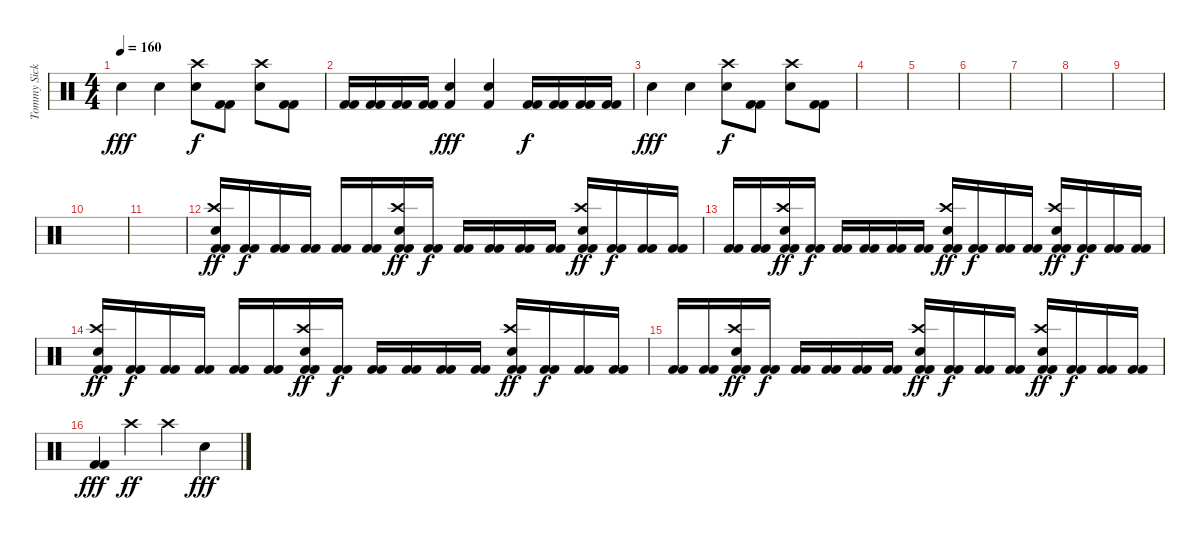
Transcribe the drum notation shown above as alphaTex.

\track ("Tommy Sickles" "Tommy Sick") {instrument percussion}
\staff {score}
\articulation defaults
\ts (4 4)
\tempo 160
\clef neutral
\ks c "Electric Snare (hit)".4{dy fff} "Electric Snare (hit)".4
("Crash high (hit)" "Electric Snare (hit)").8{dy f} ("Kick (hit) 2" "Kick (hit) 2").8 ("Crash high (hit)" "Electric Snare (hit)").8 ("Kick (hit) 2" "Kick (hit) 2").8 |
("Kick (hit) 2" "Kick (hit) 2").16 ("Kick (hit) 2" "Kick (hit) 2").16 ("Kick (hit) 2" "Kick (hit) 2").16 ("Kick (hit) 2" "Kick (hit) 2").16 ("Kick (hit) 2" "Electric Snare (hit)").4{dy fff} ("Kick (hit) 2" "Electric Snare (hit)").4 ("Kick (hit) 2" "Kick (hit) 2").16{dy f} ("Kick (hit) 2" "Kick (hit) 2").16 ("Kick (hit) 2" "Kick (hit) 2").16 ("Kick (hit) 2" "Kick (hit) 2").16 |
"Electric Snare (hit)".4{dy fff} "Electric Snare (hit)".4 ("Crash high (hit)" "Electric Snare (hit)").8{dy f} ("Kick (hit) 2" "Kick (hit) 2").8 ("Crash high (hit)" "Electric Snare (hit)").8 ("Kick (hit) 2" "Kick (hit) 2").8 |
|
|
|
|
|
|
|
|
("Crash high (hit)" "Kick (hit) 2" "Kick (hit) 2" "Electric Snare (hit)").16{dy ff} ("Kick (hit) 2" "Kick (hit) 2").16{dy f} ("Kick (hit) 2" "Kick (hit) 2").16 ("Kick (hit) 2" "Kick (hit) 2").16 ("Kick (hit) 2" "Kick (hit) 2").16 ("Kick (hit) 2" "Kick (hit) 2").16 ("Crash high (hit)" "Kick (hit) 2" "Kick (hit) 2" "Electric Snare (hit)").16{dy ff} ("Kick (hit) 2" "Kick (hit) 2").16{dy f} ("Kick (hit) 2" "Kick (hit) 2").16 ("Kick (hit) 2" "Kick (hit) 2").16 ("Kick (hit) 2" "Kick (hit) 2").16 ("Kick (hit) 2" "Kick (hit) 2").16 ("Crash high (hit)" "Kick (hit) 2" "Kick (hit) 2" "Electric Snare (hit)").16{dy ff} ("Kick (hit) 2" "Kick (hit) 2").16{dy f} ("Kick (hit) 2" "Kick (hit) 2").16 ("Kick (hit) 2" "Kick (hit) 2").16 |
("Kick (hit) 2" "Kick (hit) 2").16 ("Kick (hit) 2" "Kick (hit) 2").16 ("Crash high (hit)" "Kick (hit) 2" "Kick (hit) 2" "Electric Snare (hit)").16{dy ff} ("Kick (hit) 2" "Kick (hit) 2").16{dy f} ("Kick (hit) 2" "Kick (hit) 2").16 ("Kick (hit) 2" "Kick (hit) 2").16 ("Kick (hit) 2" "Kick (hit) 2").16 ("Kick (hit) 2" "Kick (hit) 2").16 ("Crash high (hit)" "Kick (hit) 2" "Kick (hit) 2" "Electric Snare (hit)").16{dy ff} ("Kick (hit) 2" "Kick (hit) 2").16{dy f} ("Kick (hit) 2" "Kick (hit) 2").16 ("Kick (hit) 2" "Kick (hit) 2").16 ("Crash high (hit)" "Kick (hit) 2" "Kick (hit) 2" "Electric Snare (hit)").16{dy ff} ("Kick (hit) 2" "Kick (hit) 2").16{dy f} ("Kick (hit) 2" "Kick (hit) 2").16 ("Kick (hit) 2" "Kick (hit) 2").16 |
("Crash high (hit)" "Kick (hit) 2" "Kick (hit) 2" "Electric Snare (hit)").16{dy ff} ("Kick (hit) 2" "Kick (hit) 2").16{dy f} ("Kick (hit) 2" "Kick (hit) 2").16 ("Kick (hit) 2" "Kick (hit) 2").16 ("Kick (hit) 2" "Kick (hit) 2").16 ("Kick (hit) 2" "Kick (hit) 2").16 ("Crash high (hit)" "Kick (hit) 2" "Kick (hit) 2" "Electric Snare (hit)").16{dy ff} ("Kick (hit) 2" "Kick (hit) 2").16{dy f} ("Kick (hit) 2" "Kick (hit) 2").16 ("Kick (hit) 2" "Kick (hit) 2").16 ("Kick (hit) 2" "Kick (hit) 2").16 ("Kick (hit) 2" "Kick (hit) 2").16 ("Crash high (hit)" "Kick (hit) 2" "Kick (hit) 2" "Electric Snare (hit)").16{dy ff} ("Kick (hit) 2" "Kick (hit) 2").16{dy f} ("Kick (hit) 2" "Kick (hit) 2").16 ("Kick (hit) 2" "Kick (hit) 2").16 |
("Kick (hit) 2" "Kick (hit) 2").16 ("Kick (hit) 2" "Kick (hit) 2").16 ("Crash high (hit)" "Kick (hit) 2" "Kick (hit) 2" "Electric Snare (hit)").16{dy ff} ("Kick (hit) 2" "Kick (hit) 2").16{dy f} ("Kick (hit) 2" "Kick (hit) 2").16 ("Kick (hit) 2" "Kick (hit) 2").16 ("Kick (hit) 2" "Kick (hit) 2").16 ("Kick (hit) 2" "Kick (hit) 2").16 ("Crash high (hit)" "Kick (hit) 2" "Kick (hit) 2" "Electric Snare (hit)").16{dy ff} ("Kick (hit) 2" "Kick (hit) 2").16{dy f} ("Kick (hit) 2" "Kick (hit) 2").16 ("Kick (hit) 2" "Kick (hit) 2").16 ("Crash high (hit)" "Kick (hit) 2" "Kick (hit) 2" "Electric Snare (hit)").16{dy ff} ("Kick (hit) 2" "Kick (hit) 2").16{dy f} ("Kick (hit) 2" "Kick (hit) 2").16 ("Kick (hit) 2" "Kick (hit) 2").16 |
("Kick (hit) 2" "Kick (hit) 2").4{dy fff} "Crash high (hit)".4{dy ff} "Crash high (hit)".4 "Electric Snare (hit)".4{dy fff}
